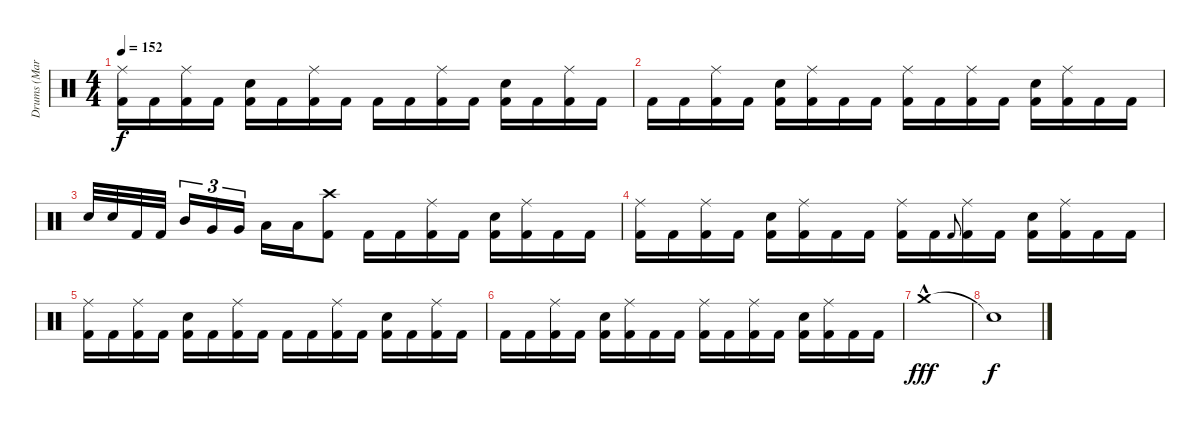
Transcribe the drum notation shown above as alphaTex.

\track ("Drums (Mark Arrington)" "Drums (Mar") {instrument percussion}
\staff {score}
\articulation defaults
\ts (4 4)
\tempo 152
\clef neutral
\ks aminor
("Ride (middle)" "Kick (hit) 2").16{dy f} "Kick (hit) 2".16 ("Ride (middle)" "Kick (hit) 2").16 "Kick (hit) 2".16 ("Electric Snare (hit)" "Kick (hit) 2").16 "Kick (hit) 2".16 ("Ride (middle)" "Kick (hit) 2").16 "Kick (hit) 2".16 "Kick (hit) 2".16 "Kick (hit) 2".16 ("Ride (middle)" "Kick (hit) 2").16 "Kick (hit) 2".16 ("Electric Snare (hit)" "Kick (hit) 2").16 "Kick (hit) 2".16 ("Ride (middle)" "Kick (hit) 2").16 "Kick (hit) 2".16 |
"Kick (hit) 2".16 "Kick (hit) 2".16 ("Ride (middle)" "Kick (hit) 2").16 "Kick (hit) 2".16 ("Electric Snare (hit)" "Kick (hit) 2").16 ("Ride (middle)" "Kick (hit) 2").16 "Kick (hit) 2".16 "Kick (hit) 2".16 ("Ride (middle)" "Kick (hit) 2").16 "Kick (hit) 2".16 ("Ride (middle)" "Kick (hit) 2").16 "Kick (hit) 2".16 ("Electric Snare (hit)" "Kick (hit) 2").16 ("Ride (middle)" "Kick (hit) 2").16 "Kick (hit) 2".16 "Kick (hit) 2".16 |
"Electric Snare (hit)".32 "Electric Snare (hit)".32 "Kick (hit) 2".32 "Kick (hit) 2".32{beam splitsecondary} "Mid Tom (hit)".16{tu (3 2)} "Very Low Tom (hit)".16{tu (3 2)} "Very Low Tom (hit)".16{tu (3 2)} "Low Floor Tom (hit)".16 "Low Floor Tom (hit)".16 ("Crash high (hit)" "Kick (hit) 2").8 "Kick (hit) 2".16 "Kick (hit) 2".16 ("Ride (middle)" "Kick (hit) 2").16 "Kick (hit) 2".16 ("Electric Snare (hit)" "Kick (hit) 2").16 ("Ride (middle)" "Kick (hit) 2").16 "Kick (hit) 2".16 "Kick (hit) 2".16 |
("Ride (middle)" "Kick (hit) 2").16 "Kick (hit) 2".16 ("Ride (middle)" "Kick (hit) 2").16 "Kick (hit) 2".16 ("Electric Snare (hit)" "Kick (hit) 2").16 ("Ride (middle)" "Kick (hit) 2").16 "Kick (hit) 2".16 "Kick (hit) 2".16 ("Ride (middle)" "Kick (hit) 2").16 "Kick (hit) 2".16 "Kick (hit) 2".8{gr onbeat} ("Ride (middle)" "Kick (hit) 2").16 "Kick (hit) 2".16 ("Electric Snare (hit)" "Kick (hit) 2").16 ("Ride (middle)" "Kick (hit) 2").16 "Kick (hit) 2".16 "Kick (hit) 2".16 |
("Ride (middle)" "Kick (hit) 2").16 "Kick (hit) 2".16 ("Ride (middle)" "Kick (hit) 2").16 "Kick (hit) 2".16 ("Electric Snare (hit)" "Kick (hit) 2").16 "Kick (hit) 2".16 ("Ride (middle)" "Kick (hit) 2").16 "Kick (hit) 2".16 "Kick (hit) 2".16 "Kick (hit) 2".16 ("Ride (middle)" "Kick (hit) 2").16 "Kick (hit) 2".16 ("Electric Snare (hit)" "Kick (hit) 2").16 "Kick (hit) 2".16 ("Ride (middle)" "Kick (hit) 2").16 "Kick (hit) 2".16 |
"Kick (hit) 2".16 "Kick (hit) 2".16 ("Ride (middle)" "Kick (hit) 2").16 "Kick (hit) 2".16 ("Electric Snare (hit)" "Kick (hit) 2").16 ("Ride (middle)" "Kick (hit) 2").16 "Kick (hit) 2".16 "Kick (hit) 2".16 ("Ride (middle)" "Kick (hit) 2").16 "Kick (hit) 2".16 ("Ride (middle)" "Kick (hit) 2").16 "Kick (hit) 2".16 ("Electric Snare (hit)" "Kick (hit) 2").16 ("Ride (middle)" "Kick (hit) 2").16 "Kick (hit) 2".16 "Kick (hit) 2".16 |
"Crash medium (hit)"{hac}.1{dy fff} |
"Snare (hit)"{t}.1{dy f}
